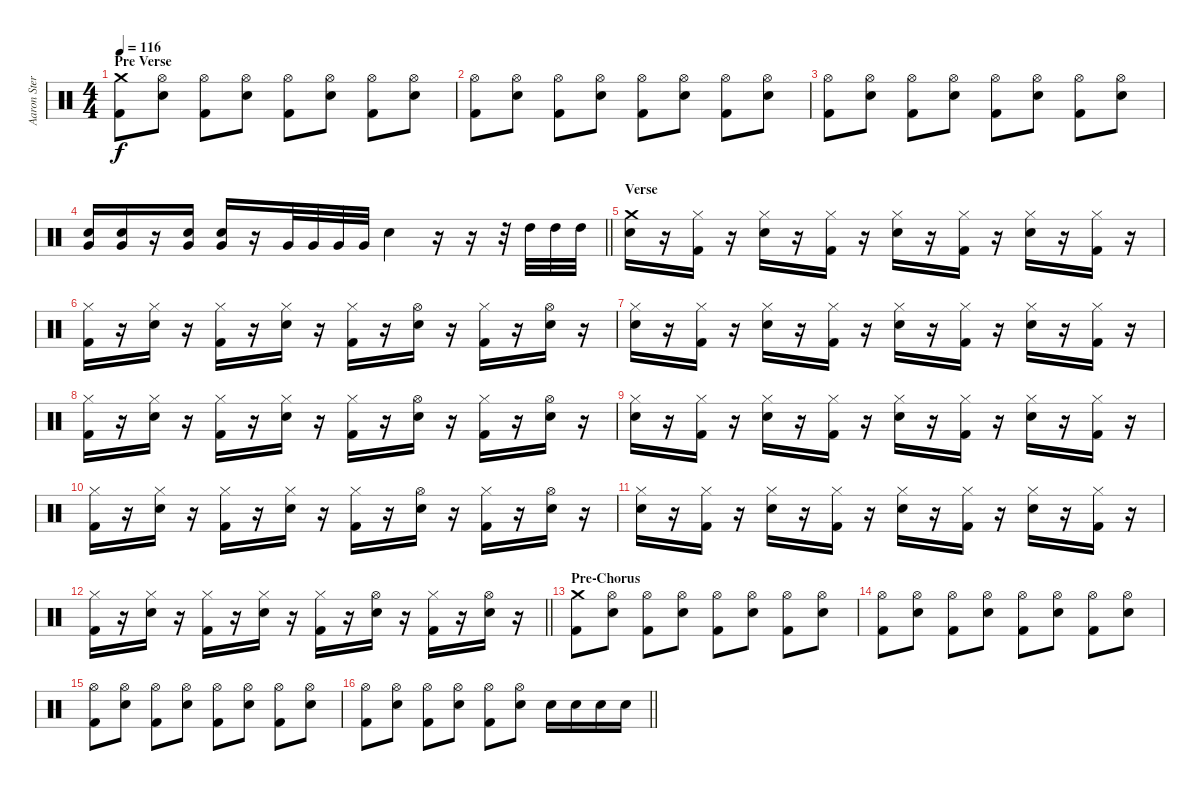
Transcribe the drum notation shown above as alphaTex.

\track ("Aaron Stern" "Aaron Ster") {instrument percussion}
\staff {score}
\articulation defaults
\ts (4 4)
\section ("" "Pre Verse")
\tempo 116
\clef neutral
\ks c
("Crash medium (hit)" "Kick (hit) 2").8{dy f} ("Hi-Hat (open)" "Snare (hit) 2").8 ("Hi-Hat (open)" "Kick (hit) 2").8 ("Hi-Hat (open)" "Snare (hit) 2").8 ("Hi-Hat (open)" "Kick (hit) 2").8 ("Hi-Hat (open)" "Snare (hit) 2").8 ("Hi-Hat (open)" "Kick (hit) 2").8 ("Hi-Hat (open)" "Snare (hit) 2").8 |
("Hi-Hat (open)" "Kick (hit) 2").8 ("Hi-Hat (open)" "Snare (hit) 2").8 ("Hi-Hat (open)" "Kick (hit) 2").8 ("Hi-Hat (open)" "Snare (hit) 2").8 ("Hi-Hat (open)" "Kick (hit) 2").8 ("Hi-Hat (open)" "Snare (hit) 2").8 ("Hi-Hat (open)" "Kick (hit) 2").8 ("Hi-Hat (open)" "Snare (hit) 2").8 |
("Hi-Hat (open)" "Kick (hit) 2").8 ("Hi-Hat (open)" "Snare (hit) 2").8 ("Hi-Hat (open)" "Kick (hit) 2").8 ("Hi-Hat (open)" "Snare (hit) 2").8 ("Hi-Hat (open)" "Kick (hit) 2").8 ("Hi-Hat (open)" "Snare (hit) 2").8 ("Hi-Hat (open)" "Kick (hit) 2").8 ("Hi-Hat (open)" "Snare (hit) 2").8 |
\barLineRight lightlight
("Snare (hit) 2" "Very Low Tom (hit)").16 ("Snare (hit) 2" "Very Low Tom (hit)").16 r.16 ("Snare (hit) 2" "Very Low Tom (hit)").16 ("Snare (hit) 2" "Very Low Tom (hit)").16 r.16 "Very Low Tom (hit)".32 "Very Low Tom (hit)".32 "Very Low Tom (hit)".32 "Very Low Tom (hit)".32 "Snare (hit) 2".4 r.16 r.16 r.32 "High Tom (hit)".32 "High Tom (hit)".32 "High Tom (hit)".32 |
\section ("" "Verse")
("Crash medium (hit)" "Snare (hit) 2").16 r.16 ("Hi-Hat (closed)" "Kick (hit) 2").16 r.16 ("Hi-Hat (closed)" "Snare (hit) 2").16 r.16 ("Hi-Hat (closed)" "Kick (hit) 2").16 r.16 ("Hi-Hat (closed)" "Snare (hit) 2").16 r.16 ("Hi-Hat (closed)" "Kick (hit) 2").16 r.16 ("Hi-Hat (closed)" "Snare (hit) 2").16 r.16 ("Hi-Hat (closed)" "Kick (hit) 2").16 r.16 |
("Hi-Hat (closed)" "Kick (hit) 2").16 r.16 ("Hi-Hat (closed)" "Snare (hit) 2").16 r.16 ("Hi-Hat (closed)" "Kick (hit) 2").16 r.16 ("Hi-Hat (closed)" "Snare (hit) 2").16 r.16 ("Hi-Hat (closed)" "Kick (hit) 2").16 r.16 ("Hi-Hat (open)" "Snare (hit) 2").16 r.16 ("Hi-Hat (closed)" "Kick (hit) 2").16 r.16 ("Hi-Hat (open)" "Snare (hit) 2").16 r.16 |
("Hi-Hat (closed)" "Snare (hit) 2").16 r.16 ("Hi-Hat (closed)" "Kick (hit) 2").16 r.16 ("Hi-Hat (closed)" "Snare (hit) 2").16 r.16 ("Hi-Hat (closed)" "Kick (hit) 2").16 r.16 ("Hi-Hat (closed)" "Snare (hit) 2").16 r.16 ("Hi-Hat (closed)" "Kick (hit) 2").16 r.16 ("Hi-Hat (closed)" "Snare (hit) 2").16 r.16 ("Hi-Hat (closed)" "Kick (hit) 2").16 r.16 |
("Hi-Hat (closed)" "Kick (hit) 2").16 r.16 ("Hi-Hat (closed)" "Snare (hit) 2").16 r.16 ("Hi-Hat (closed)" "Kick (hit) 2").16 r.16 ("Hi-Hat (closed)" "Snare (hit) 2").16 r.16 ("Hi-Hat (closed)" "Kick (hit) 2").16 r.16 ("Hi-Hat (open)" "Snare (hit) 2").16 r.16 ("Hi-Hat (closed)" "Kick (hit) 2").16 r.16 ("Hi-Hat (open)" "Snare (hit) 2").16 r.16 |
("Hi-Hat (closed)" "Snare (hit) 2").16 r.16 ("Hi-Hat (closed)" "Kick (hit) 2").16 r.16 ("Hi-Hat (closed)" "Snare (hit) 2").16 r.16 ("Hi-Hat (closed)" "Kick (hit) 2").16 r.16 ("Hi-Hat (closed)" "Snare (hit) 2").16 r.16 ("Hi-Hat (closed)" "Kick (hit) 2").16 r.16 ("Hi-Hat (closed)" "Snare (hit) 2").16 r.16 ("Hi-Hat (closed)" "Kick (hit) 2").16 r.16 |
("Hi-Hat (closed)" "Kick (hit) 2").16 r.16 ("Hi-Hat (closed)" "Snare (hit) 2").16 r.16 ("Hi-Hat (closed)" "Kick (hit) 2").16 r.16 ("Hi-Hat (closed)" "Snare (hit) 2").16 r.16 ("Hi-Hat (closed)" "Kick (hit) 2").16 r.16 ("Hi-Hat (open)" "Snare (hit) 2").16 r.16 ("Hi-Hat (closed)" "Kick (hit) 2").16 r.16 ("Hi-Hat (open)" "Snare (hit) 2").16 r.16 |
("Hi-Hat (closed)" "Snare (hit) 2").16 r.16 ("Hi-Hat (closed)" "Kick (hit) 2").16 r.16 ("Hi-Hat (closed)" "Snare (hit) 2").16 r.16 ("Hi-Hat (closed)" "Kick (hit) 2").16 r.16 ("Hi-Hat (closed)" "Snare (hit) 2").16 r.16 ("Hi-Hat (closed)" "Kick (hit) 2").16 r.16 ("Hi-Hat (closed)" "Snare (hit) 2").16 r.16 ("Hi-Hat (closed)" "Kick (hit) 2").16 r.16 |
\barLineRight lightlight
("Hi-Hat (closed)" "Kick (hit) 2").16 r.16 ("Hi-Hat (closed)" "Snare (hit) 2").16 r.16 ("Hi-Hat (closed)" "Kick (hit) 2").16 r.16 ("Hi-Hat (closed)" "Snare (hit) 2").16 r.16 ("Hi-Hat (closed)" "Kick (hit) 2").16 r.16 ("Hi-Hat (open)" "Snare (hit) 2").16 r.16 ("Hi-Hat (closed)" "Kick (hit) 2").16 r.16 ("Hi-Hat (open)" "Snare (hit) 2").16 r.16 |
\section ("" "Pre-Chorus")
("Crash medium (hit)" "Kick (hit) 2").8 ("Hi-Hat (open)" "Snare (hit) 2").8 ("Hi-Hat (open)" "Kick (hit) 2").8 ("Hi-Hat (open)" "Snare (hit) 2").8 ("Hi-Hat (open)" "Kick (hit) 2").8 ("Hi-Hat (open)" "Snare (hit) 2").8 ("Hi-Hat (open)" "Kick (hit) 2").8 ("Hi-Hat (open)" "Snare (hit) 2").8 |
("Hi-Hat (open)" "Kick (hit) 2").8 ("Hi-Hat (open)" "Snare (hit) 2").8 ("Hi-Hat (open)" "Kick (hit) 2").8 ("Hi-Hat (open)" "Snare (hit) 2").8 ("Hi-Hat (open)" "Kick (hit) 2").8 ("Hi-Hat (open)" "Snare (hit) 2").8 ("Hi-Hat (open)" "Kick (hit) 2").8 ("Hi-Hat (open)" "Snare (hit) 2").8 |
("Hi-Hat (open)" "Kick (hit) 2").8 ("Hi-Hat (open)" "Snare (hit) 2").8 ("Hi-Hat (open)" "Kick (hit) 2").8 ("Hi-Hat (open)" "Snare (hit) 2").8 ("Hi-Hat (open)" "Kick (hit) 2").8 ("Hi-Hat (open)" "Snare (hit) 2").8 ("Hi-Hat (open)" "Kick (hit) 2").8 ("Hi-Hat (open)" "Snare (hit) 2").8 |
\barLineRight lightlight
("Hi-Hat (open)" "Kick (hit) 2").8 ("Hi-Hat (open)" "Snare (hit) 2").8 ("Hi-Hat (open)" "Kick (hit) 2").8 ("Hi-Hat (open)" "Snare (hit) 2").8 ("Hi-Hat (open)" "Kick (hit) 2").8 ("Hi-Hat (open)" "Snare (hit) 2").8 "Snare (hit) 2".16 "Snare (hit) 2".16 "Snare (hit) 2".16 "Snare (hit) 2".16
